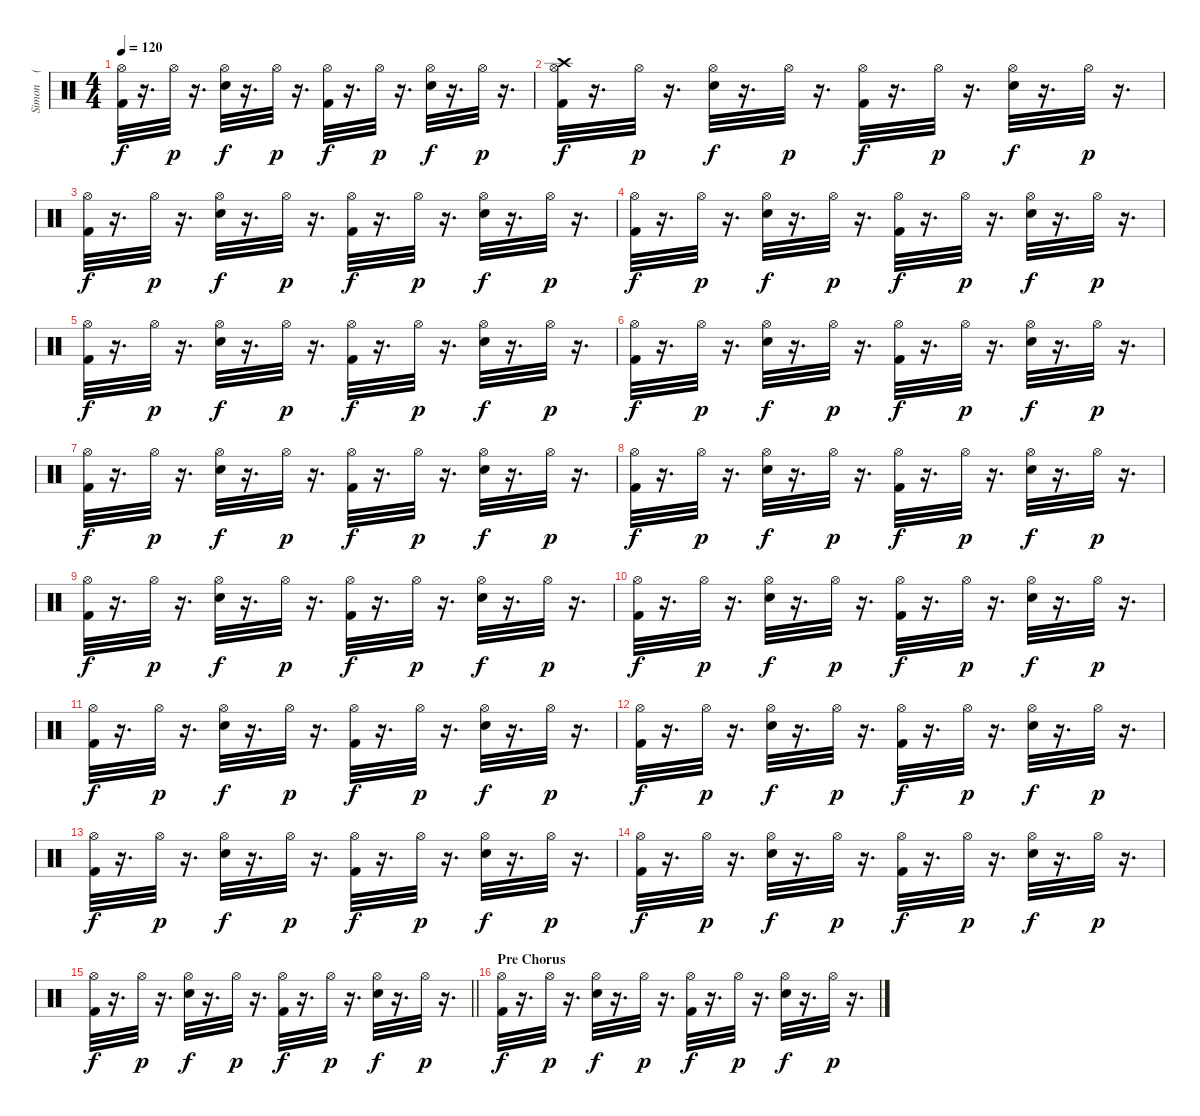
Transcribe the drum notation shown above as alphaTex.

\track ("Simon    (Drums)" "Simon    (") {instrument percussion}
\staff {score}
\articulation defaults
\ts (4 4)
\tempo 120
\clef neutral
\ks c
("Hi-Hat (open)" "Kick (hit) 2").32{dy f} r.16{d} "Hi-Hat (open)".32{dy p} r.16{d} ("Hi-Hat (open)" "Electric Snare (hit)").32{dy f} r.16{d} "Hi-Hat (open)".32{dy p} r.16{d} ("Hi-Hat (open)" "Kick (hit) 2").32{dy f} r.16{d} "Hi-Hat (open)".32{dy p} r.16{d} ("Hi-Hat (open)" "Electric Snare (hit)").32{dy f} r.16{d} "Hi-Hat (open)".32{dy p} r.16{d} |
("Crash high (hit)" "Hi-Hat (open)" "Kick (hit) 2").32{dy f} r.16{d} "Hi-Hat (open)".32{dy p} r.16{d} ("Hi-Hat (open)" "Electric Snare (hit)").32{dy f} r.16{d} "Hi-Hat (open)".32{dy p} r.16{d} ("Hi-Hat (open)" "Kick (hit) 2").32{dy f} r.16{d} "Hi-Hat (open)".32{dy p} r.16{d} ("Hi-Hat (open)" "Electric Snare (hit)").32{dy f} r.16{d} "Hi-Hat (open)".32{dy p} r.16{d} |
("Hi-Hat (open)" "Kick (hit) 2").32{dy f} r.16{d} "Hi-Hat (open)".32{dy p} r.16{d} ("Hi-Hat (open)" "Electric Snare (hit)").32{dy f} r.16{d} "Hi-Hat (open)".32{dy p} r.16{d} ("Hi-Hat (open)" "Kick (hit) 2").32{dy f} r.16{d} "Hi-Hat (open)".32{dy p} r.16{d} ("Hi-Hat (open)" "Electric Snare (hit)").32{dy f} r.16{d} "Hi-Hat (open)".32{dy p} r.16{d} |
("Hi-Hat (open)" "Kick (hit) 2").32{dy f} r.16{d} "Hi-Hat (open)".32{dy p} r.16{d} ("Hi-Hat (open)" "Electric Snare (hit)").32{dy f} r.16{d} "Hi-Hat (open)".32{dy p} r.16{d} ("Hi-Hat (open)" "Kick (hit) 2").32{dy f} r.16{d} "Hi-Hat (open)".32{dy p} r.16{d} ("Hi-Hat (open)" "Electric Snare (hit)").32{dy f} r.16{d} "Hi-Hat (open)".32{dy p} r.16{d} |
("Hi-Hat (open)" "Kick (hit) 2").32{dy f} r.16{d} "Hi-Hat (open)".32{dy p} r.16{d} ("Hi-Hat (open)" "Electric Snare (hit)").32{dy f} r.16{d} "Hi-Hat (open)".32{dy p} r.16{d} ("Hi-Hat (open)" "Kick (hit) 2").32{dy f} r.16{d} "Hi-Hat (open)".32{dy p} r.16{d} ("Hi-Hat (open)" "Electric Snare (hit)").32{dy f} r.16{d} "Hi-Hat (open)".32{dy p} r.16{d} |
("Hi-Hat (open)" "Kick (hit) 2").32{dy f} r.16{d} "Hi-Hat (open)".32{dy p} r.16{d} ("Hi-Hat (open)" "Electric Snare (hit)").32{dy f} r.16{d} "Hi-Hat (open)".32{dy p} r.16{d} ("Hi-Hat (open)" "Kick (hit) 2").32{dy f} r.16{d} "Hi-Hat (open)".32{dy p} r.16{d} ("Hi-Hat (open)" "Electric Snare (hit)").32{dy f} r.16{d} "Hi-Hat (open)".32{dy p} r.16{d} |
("Hi-Hat (open)" "Kick (hit) 2").32{dy f} r.16{d} "Hi-Hat (open)".32{dy p} r.16{d} ("Hi-Hat (open)" "Electric Snare (hit)").32{dy f} r.16{d} "Hi-Hat (open)".32{dy p} r.16{d} ("Hi-Hat (open)" "Kick (hit) 2").32{dy f} r.16{d} "Hi-Hat (open)".32{dy p} r.16{d} ("Hi-Hat (open)" "Electric Snare (hit)").32{dy f} r.16{d} "Hi-Hat (open)".32{dy p} r.16{d} |
("Hi-Hat (open)" "Kick (hit) 2").32{dy f} r.16{d} "Hi-Hat (open)".32{dy p} r.16{d} ("Hi-Hat (open)" "Electric Snare (hit)").32{dy f} r.16{d} "Hi-Hat (open)".32{dy p} r.16{d} ("Hi-Hat (open)" "Kick (hit) 2").32{dy f} r.16{d} "Hi-Hat (open)".32{dy p} r.16{d} ("Hi-Hat (open)" "Electric Snare (hit)").32{dy f} r.16{d} "Hi-Hat (open)".32{dy p} r.16{d} |
("Hi-Hat (open)" "Kick (hit) 2").32{dy f} r.16{d} "Hi-Hat (open)".32{dy p} r.16{d} ("Hi-Hat (open)" "Electric Snare (hit)").32{dy f} r.16{d} "Hi-Hat (open)".32{dy p} r.16{d} ("Hi-Hat (open)" "Kick (hit) 2").32{dy f} r.16{d} "Hi-Hat (open)".32{dy p} r.16{d} ("Hi-Hat (open)" "Electric Snare (hit)").32{dy f} r.16{d} "Hi-Hat (open)".32{dy p} r.16{d} |
("Hi-Hat (open)" "Kick (hit) 2").32{dy f} r.16{d} "Hi-Hat (open)".32{dy p} r.16{d} ("Hi-Hat (open)" "Electric Snare (hit)").32{dy f} r.16{d} "Hi-Hat (open)".32{dy p} r.16{d} ("Hi-Hat (open)" "Kick (hit) 2").32{dy f} r.16{d} "Hi-Hat (open)".32{dy p} r.16{d} ("Hi-Hat (open)" "Electric Snare (hit)").32{dy f} r.16{d} "Hi-Hat (open)".32{dy p} r.16{d} |
("Hi-Hat (open)" "Kick (hit) 2").32{dy f} r.16{d} "Hi-Hat (open)".32{dy p} r.16{d} ("Hi-Hat (open)" "Electric Snare (hit)").32{dy f} r.16{d} "Hi-Hat (open)".32{dy p} r.16{d} ("Hi-Hat (open)" "Kick (hit) 2").32{dy f} r.16{d} "Hi-Hat (open)".32{dy p} r.16{d} ("Hi-Hat (open)" "Electric Snare (hit)").32{dy f} r.16{d} "Hi-Hat (open)".32{dy p} r.16{d} |
("Hi-Hat (open)" "Kick (hit) 2").32{dy f} r.16{d} "Hi-Hat (open)".32{dy p} r.16{d} ("Hi-Hat (open)" "Electric Snare (hit)").32{dy f} r.16{d} "Hi-Hat (open)".32{dy p} r.16{d} ("Hi-Hat (open)" "Kick (hit) 2").32{dy f} r.16{d} "Hi-Hat (open)".32{dy p} r.16{d} ("Hi-Hat (open)" "Electric Snare (hit)").32{dy f} r.16{d} "Hi-Hat (open)".32{dy p} r.16{d} |
("Hi-Hat (open)" "Kick (hit) 2").32{dy f} r.16{d} "Hi-Hat (open)".32{dy p} r.16{d} ("Hi-Hat (open)" "Electric Snare (hit)").32{dy f} r.16{d} "Hi-Hat (open)".32{dy p} r.16{d} ("Hi-Hat (open)" "Kick (hit) 2").32{dy f} r.16{d} "Hi-Hat (open)".32{dy p} r.16{d} ("Hi-Hat (open)" "Electric Snare (hit)").32{dy f} r.16{d} "Hi-Hat (open)".32{dy p} r.16{d} |
("Hi-Hat (open)" "Kick (hit) 2").32{dy f} r.16{d} "Hi-Hat (open)".32{dy p} r.16{d} ("Hi-Hat (open)" "Electric Snare (hit)").32{dy f} r.16{d} "Hi-Hat (open)".32{dy p} r.16{d} ("Hi-Hat (open)" "Kick (hit) 2").32{dy f} r.16{d} "Hi-Hat (open)".32{dy p} r.16{d} ("Hi-Hat (open)" "Electric Snare (hit)").32{dy f} r.16{d} "Hi-Hat (open)".32{dy p} r.16{d} |
\barLineRight lightlight
("Hi-Hat (open)" "Kick (hit) 2").32{dy f} r.16{d} "Hi-Hat (open)".32{dy p} r.16{d} ("Hi-Hat (open)" "Electric Snare (hit)").32{dy f} r.16{d} "Hi-Hat (open)".32{dy p} r.16{d} ("Hi-Hat (open)" "Kick (hit) 2").32{dy f} r.16{d} "Hi-Hat (open)".32{dy p} r.16{d} ("Hi-Hat (open)" "Electric Snare (hit)").32{dy f} r.16{d} "Hi-Hat (open)".32{dy p} r.16{d} |
\section ("" "Pre Chorus")
("Hi-Hat (open)" "Kick (hit) 2").32{dy f} r.16{d} "Hi-Hat (open)".32{dy p} r.16{d} ("Hi-Hat (open)" "Electric Snare (hit)").32{dy f} r.16{d} "Hi-Hat (open)".32{dy p} r.16{d} ("Hi-Hat (open)" "Kick (hit) 2").32{dy f} r.16{d} "Hi-Hat (open)".32{dy p} r.16{d} ("Hi-Hat (open)" "Electric Snare (hit)").32{dy f} r.16{d} "Hi-Hat (open)".32{dy p} r.16{d}
